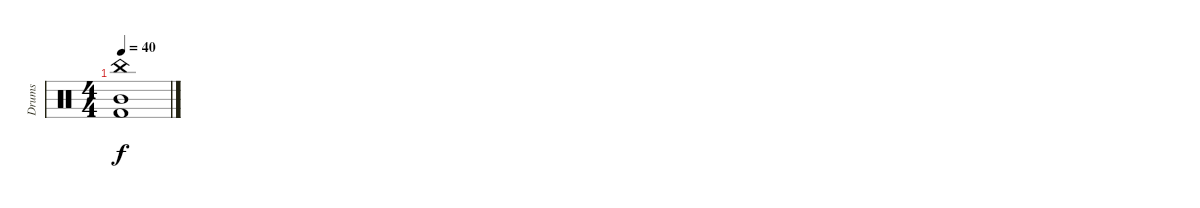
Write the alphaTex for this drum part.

\track ("Drums" "Drums") {instrument percussion}
\staff {score}
\articulation defaults
\ts (4 4)
\tempo 40
\clef neutral
\ks c
("China (hit)" "Mid Tom (hit)" "Kick (hit) 2").1{dy f}
